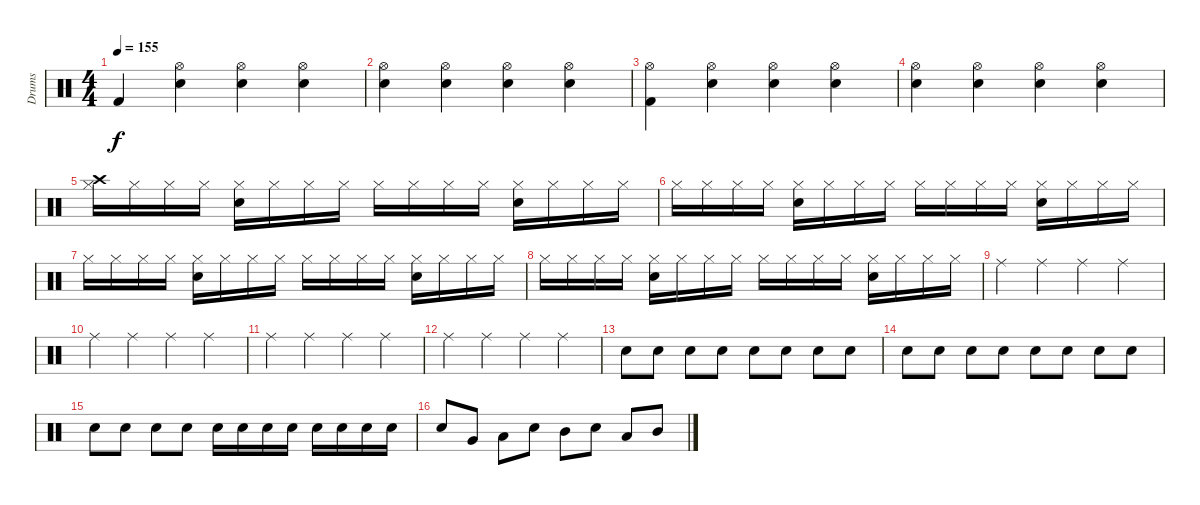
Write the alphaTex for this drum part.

\track ("Drums" "Drums") {instrument percussion}
\staff {score}
\articulation defaults
\ts (4 4)
\tempo 155
\clef neutral
\ks c "Kick (hit) 2".4{dy f}
("Hi-Hat (open)" "Electric Snare (hit)").4 ("Hi-Hat (open)" "Electric Snare (hit)").4 ("Hi-Hat (open)" "Electric Snare (hit)").4 |
("Hi-Hat (open)" "Electric Snare (hit)").4 ("Hi-Hat (open)" "Electric Snare (hit)").4 ("Hi-Hat (open)" "Electric Snare (hit)").4 ("Hi-Hat (open)" "Electric Snare (hit)").4 |
("Hi-Hat (open)" "Kick (hit) 2").4 ("Hi-Hat (open)" "Electric Snare (hit)").4 ("Hi-Hat (open)" "Electric Snare (hit)").4 ("Hi-Hat (open)" "Electric Snare (hit)").4 |
("Hi-Hat (open)" "Electric Snare (hit)").4 ("Hi-Hat (open)" "Electric Snare (hit)").4 ("Hi-Hat (open)" "Electric Snare (hit)").4 ("Hi-Hat (open)" "Electric Snare (hit)").4 |
("Hi-Hat (closed)" "Crash high (hit)").16 "Hi-Hat (closed)".16 "Hi-Hat (closed)".16 "Hi-Hat (closed)".16 ("Hi-Hat (closed)" "Electric Snare (hit)").16 "Hi-Hat (closed)".16 "Hi-Hat (closed)".16 "Hi-Hat (closed)".16 "Hi-Hat (closed)".16 "Hi-Hat (closed)".16 "Hi-Hat (closed)".16 "Hi-Hat (closed)".16 ("Hi-Hat (closed)" "Electric Snare (hit)").16 "Hi-Hat (closed)".16 "Hi-Hat (closed)".16 "Hi-Hat (closed)".16 |
"Hi-Hat (closed)".16 "Hi-Hat (closed)".16 "Hi-Hat (closed)".16 "Hi-Hat (closed)".16 ("Hi-Hat (closed)" "Electric Snare (hit)").16 "Hi-Hat (closed)".16 "Hi-Hat (closed)".16 "Hi-Hat (closed)".16 "Hi-Hat (closed)".16 "Hi-Hat (closed)".16 "Hi-Hat (closed)".16 "Hi-Hat (closed)".16 ("Hi-Hat (closed)" "Electric Snare (hit)").16 "Hi-Hat (closed)".16 "Hi-Hat (closed)".16 "Hi-Hat (closed)".16 |
"Hi-Hat (closed)".16 "Hi-Hat (closed)".16 "Hi-Hat (closed)".16 "Hi-Hat (closed)".16 ("Hi-Hat (closed)" "Electric Snare (hit)").16 "Hi-Hat (closed)".16 "Hi-Hat (closed)".16 "Hi-Hat (closed)".16 "Hi-Hat (closed)".16 "Hi-Hat (closed)".16 "Hi-Hat (closed)".16 "Hi-Hat (closed)".16 ("Hi-Hat (closed)" "Electric Snare (hit)").16 "Hi-Hat (closed)".16 "Hi-Hat (closed)".16 "Hi-Hat (closed)".16 |
"Hi-Hat (closed)".16 "Hi-Hat (closed)".16 "Hi-Hat (closed)".16 "Hi-Hat (closed)".16 ("Hi-Hat (closed)" "Electric Snare (hit)").16 "Hi-Hat (closed)".16 "Hi-Hat (closed)".16 "Hi-Hat (closed)".16 "Hi-Hat (closed)".16 "Hi-Hat (closed)".16 "Hi-Hat (closed)".16 "Hi-Hat (closed)".16 ("Hi-Hat (closed)" "Electric Snare (hit)").16 "Hi-Hat (closed)".16 "Hi-Hat (closed)".16 "Hi-Hat (closed)".16 |
"Ride (middle)".4 "Ride (middle)".4 "Ride (middle)".4 "Ride (middle)".4 |
"Ride (middle)".4 "Ride (middle)".4 "Ride (middle)".4 "Ride (middle)".4 |
"Ride (middle)".4 "Ride (middle)".4 "Ride (middle)".4 "Ride (middle)".4 |
"Ride (middle)".4 "Ride (middle)".4 "Ride (middle)".4 "Ride (middle)".4 |
"Electric Snare (hit)".8 "Electric Snare (hit)".8 "Electric Snare (hit)".8 "Electric Snare (hit)".8 "Electric Snare (hit)".8 "Electric Snare (hit)".8 "Electric Snare (hit)".8 "Electric Snare (hit)".8 |
"Electric Snare (hit)".8 "Electric Snare (hit)".8 "Electric Snare (hit)".8 "Electric Snare (hit)".8 "Electric Snare (hit)".8 "Electric Snare (hit)".8 "Electric Snare (hit)".8 "Electric Snare (hit)".8 |
"Electric Snare (hit)".8 "Electric Snare (hit)".8 "Electric Snare (hit)".8 "Electric Snare (hit)".8 "Electric Snare (hit)".16 "Electric Snare (hit)".16 "Electric Snare (hit)".16 "Electric Snare (hit)".16 "Electric Snare (hit)".16 "Electric Snare (hit)".16 "Electric Snare (hit)".16 "Electric Snare (hit)".16 |
"Electric Snare (hit)".8 "Very Low Tom (hit)".8 "Low Tom (hit)".8 "Electric Snare (hit)".8 "Mid Tom (hit)".8 "Electric Snare (hit)".8 "Low Tom (hit)".8 "Mid Tom (hit)".8
